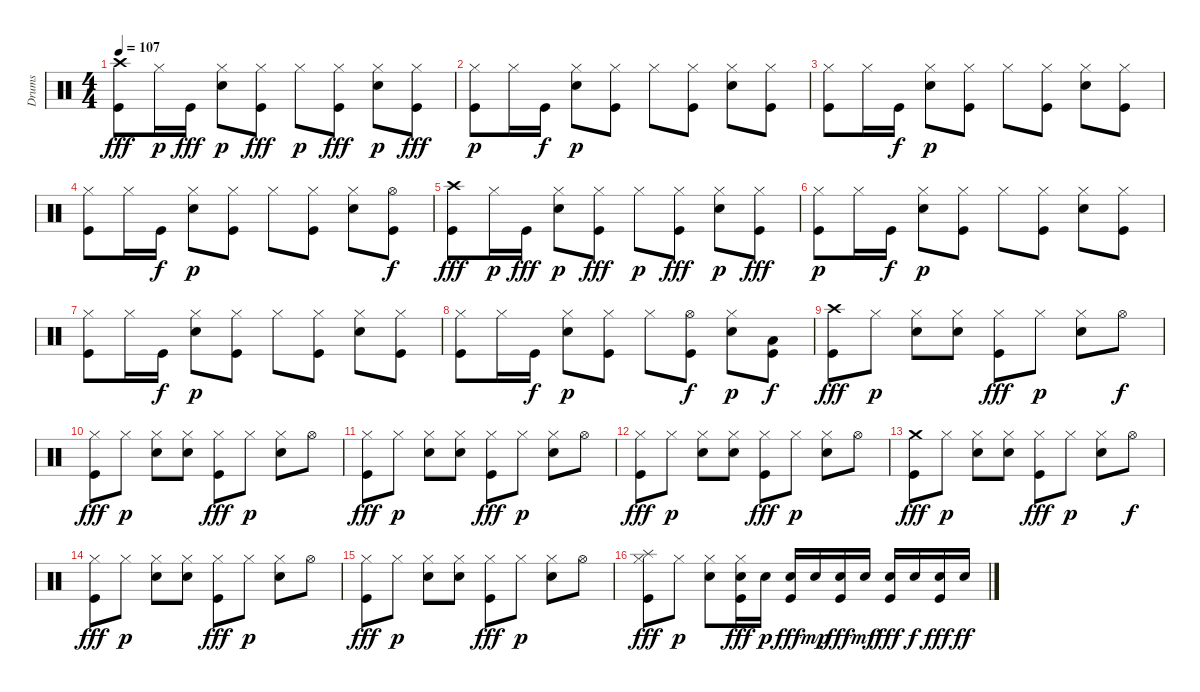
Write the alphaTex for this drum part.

\track ("Drums" "Drums") {instrument percussion}
\staff {score}
\articulation defaults
\ts (4 4)
\tempo 107
\clef neutral
\ks c
("Crash high (hit)" "Kick (hit)").8{dy fff} "Hi-Hat (closed)".16{dy p} "Kick (hit)".16{dy fff} ("Electric Snare (hit)" "Hi-Hat (closed)").8{dy p} ("Hi-Hat (closed)" "Kick (hit)").8{dy fff} "Hi-Hat (closed)".8{dy p} ("Hi-Hat (closed)" "Kick (hit)").8{dy fff} ("Electric Snare (hit)" "Hi-Hat (closed)").8{dy p} ("Hi-Hat (closed)" "Kick (hit)").8{dy fff} |
("Hi-Hat (closed)" "Kick (hit)").8{dy p} "Hi-Hat (closed)".16 "Kick (hit)".16{dy f} ("Electric Snare (hit)" "Hi-Hat (closed)").8{dy p} ("Hi-Hat (closed)" "Kick (hit)").8 "Hi-Hat (closed)".8 ("Hi-Hat (closed)" "Kick (hit)").8 ("Electric Snare (hit)" "Hi-Hat (closed)").8 ("Hi-Hat (closed)" "Kick (hit)").8 |
("Hi-Hat (closed)" "Kick (hit)").8 "Hi-Hat (closed)".16 "Kick (hit)".16{dy f} ("Electric Snare (hit)" "Hi-Hat (closed)").8{dy p} ("Hi-Hat (closed)" "Kick (hit)").8 "Hi-Hat (closed)".8 ("Hi-Hat (closed)" "Kick (hit)").8 ("Electric Snare (hit)" "Hi-Hat (closed)").8 ("Hi-Hat (closed)" "Kick (hit)").8 |
("Hi-Hat (closed)" "Kick (hit)").8 "Hi-Hat (closed)".16 "Kick (hit)".16{dy f} ("Electric Snare (hit)" "Hi-Hat (closed)").8{dy p} ("Hi-Hat (closed)" "Kick (hit)").8 "Hi-Hat (closed)".8 ("Hi-Hat (closed)" "Kick (hit)").8 ("Electric Snare (hit)" "Hi-Hat (closed)").8 ("Hi-Hat (open)" "Kick (hit)").8{dy f} |
("Crash high (hit)" "Kick (hit)").8{dy fff} "Hi-Hat (closed)".16{dy p} "Kick (hit)".16{dy fff} ("Electric Snare (hit)" "Hi-Hat (closed)").8{dy p} ("Hi-Hat (closed)" "Kick (hit)").8{dy fff} "Hi-Hat (closed)".8{dy p} ("Hi-Hat (closed)" "Kick (hit)").8{dy fff} ("Electric Snare (hit)" "Hi-Hat (closed)").8{dy p} ("Hi-Hat (closed)" "Kick (hit)").8{dy fff} |
("Hi-Hat (closed)" "Kick (hit)").8{dy p} "Hi-Hat (closed)".16 "Kick (hit)".16{dy f} ("Electric Snare (hit)" "Hi-Hat (closed)").8{dy p} ("Hi-Hat (closed)" "Kick (hit)").8 "Hi-Hat (closed)".8 ("Hi-Hat (closed)" "Kick (hit)").8 ("Electric Snare (hit)" "Hi-Hat (closed)").8 ("Hi-Hat (closed)" "Kick (hit)").8 |
("Hi-Hat (closed)" "Kick (hit)").8 "Hi-Hat (closed)".16 "Kick (hit)".16{dy f} ("Electric Snare (hit)" "Hi-Hat (closed)").8{dy p} ("Hi-Hat (closed)" "Kick (hit)").8 "Hi-Hat (closed)".8 ("Hi-Hat (closed)" "Kick (hit)").8 ("Electric Snare (hit)" "Hi-Hat (closed)").8 ("Hi-Hat (closed)" "Kick (hit)").8 |
("Hi-Hat (closed)" "Kick (hit)").8 "Hi-Hat (closed)".16 "Kick (hit)".16{dy f} ("Electric Snare (hit)" "Hi-Hat (closed)").8{dy p} ("Hi-Hat (closed)" "Kick (hit)").8 "Hi-Hat (closed)".8 ("Hi-Hat (open)" "Kick (hit)").8{dy f} ("Electric Snare (hit)" "Hi-Hat (closed)").8{dy p} ("Low Floor Tom (hit)" "Kick (hit)").8{dy f} |
("Crash high (hit)" "Kick (hit)").8{dy fff} "Hi-Hat (closed)".8{dy p} ("Electric Snare (hit)" "Hi-Hat (closed)").8 ("Electric Snare (hit)" "Hi-Hat (closed)").8 ("Hi-Hat (closed)" "Kick (hit)").8{dy fff} "Hi-Hat (closed)".8{dy p} ("Electric Snare (hit)" "Hi-Hat (closed)").8 "Hi-Hat (open)".8{dy f} |
("Hi-Hat (closed)" "Kick (hit)").8{dy fff} "Hi-Hat (closed)".8{dy p} ("Electric Snare (hit)" "Hi-Hat (closed)").8 ("Electric Snare (hit)" "Hi-Hat (closed)").8 ("Hi-Hat (closed)" "Kick (hit)").8{dy fff} "Hi-Hat (closed)".8{dy p} ("Electric Snare (hit)" "Hi-Hat (closed)").8 "Hi-Hat (open)".8 |
("Hi-Hat (closed)" "Kick (hit)").8{dy fff} "Hi-Hat (closed)".8{dy p} ("Electric Snare (hit)" "Hi-Hat (closed)").8 ("Electric Snare (hit)" "Hi-Hat (closed)").8 ("Hi-Hat (closed)" "Kick (hit)").8{dy fff} "Hi-Hat (closed)".8{dy p} ("Electric Snare (hit)" "Hi-Hat (closed)").8 "Hi-Hat (open)".8 |
("Hi-Hat (closed)" "Kick (hit)").8{dy fff} "Hi-Hat (closed)".8{dy p} ("Electric Snare (hit)" "Hi-Hat (closed)").8 ("Electric Snare (hit)" "Hi-Hat (closed)").8 ("Hi-Hat (closed)" "Kick (hit)").8{dy fff} "Hi-Hat (closed)".8{dy p} ("Electric Snare (hit)" "Hi-Hat (closed)").8 "Hi-Hat (open)".8 |
("Crash medium (hit)" "Kick (hit)").8{dy fff} "Hi-Hat (closed)".8{dy p} ("Electric Snare (hit)" "Hi-Hat (closed)").8 ("Electric Snare (hit)" "Hi-Hat (closed)").8 ("Hi-Hat (closed)" "Kick (hit)").8{dy fff} "Hi-Hat (closed)".8{dy p} ("Electric Snare (hit)" "Hi-Hat (closed)").8 "Hi-Hat (open)".8{dy f} |
("Hi-Hat (closed)" "Kick (hit)").8{dy fff} "Hi-Hat (closed)".8{dy p} ("Electric Snare (hit)" "Hi-Hat (closed)").8 ("Electric Snare (hit)" "Hi-Hat (closed)").8 ("Hi-Hat (closed)" "Kick (hit)").8{dy fff} "Hi-Hat (closed)".8{dy p} ("Electric Snare (hit)" "Hi-Hat (closed)").8 "Hi-Hat (open)".8 |
("Hi-Hat (closed)" "Kick (hit)").8{dy fff} "Hi-Hat (closed)".8{dy p} ("Electric Snare (hit)" "Hi-Hat (closed)").8 ("Electric Snare (hit)" "Hi-Hat (closed)").8 ("Hi-Hat (closed)" "Kick (hit)").8{dy fff} "Hi-Hat (closed)".8{dy p} ("Electric Snare (hit)" "Hi-Hat (closed)").8 "Hi-Hat (open)".8 |
("Splash (hit)" "Hi-Hat (closed)" "Kick (hit)").8{dy fff} "Hi-Hat (closed)".8{dy p} ("Electric Snare (hit)" "Hi-Hat (closed)").8 ("Electric Snare (hit)" "Hi-Hat (closed)" "Kick (hit)").16{dy fff} "Electric Snare (hit)".16{dy p} ("Electric Snare (hit)" "Kick (hit)").16{dy fff} "Electric Snare (hit)".16{dy mp} ("Electric Snare (hit)" "Kick (hit)").16{dy fff} "Electric Snare (hit)".16{dy mf} ("Electric Snare (hit)" "Kick (hit)").16{dy fff} "Electric Snare (hit)".16{dy f} ("Electric Snare (hit)" "Kick (hit)").16{dy fff} "Electric Snare (hit)".16{dy ff}
